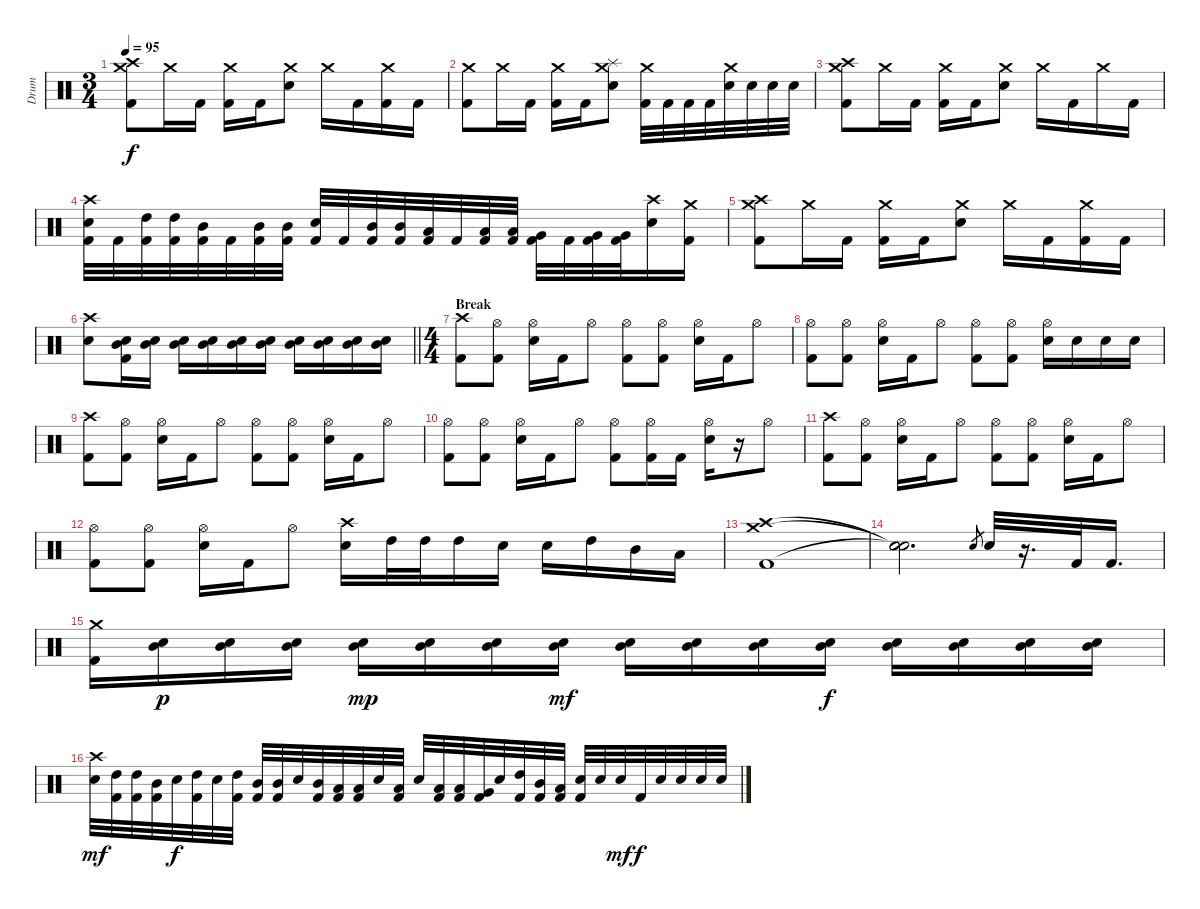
\track ("Drum" "Drum") {instrument percussion}
\staff {score}
\articulation defaults
\ts (3 4)
\tempo 95
\clef neutral
\ks c
("Crash medium (hit)" "Crash high (hit)" "Kick (hit) 2").8{dy f} "Crash medium (hit)".16 "Kick (hit) 2".16 ("Crash medium (hit)" "Kick (hit) 2").16 "Kick (hit) 2".16 ("Crash medium (hit)" "Electric Snare (hit)").8 "Crash medium (hit)".16 "Kick (hit) 2".16 ("Crash medium (hit)" "Kick (hit) 2").16 "Kick (hit) 2".16 |
("Crash medium (hit)" "Kick (hit) 2").8 "Crash medium (hit)".16 "Kick (hit) 2".16 ("Crash medium (hit)" "Kick (hit) 2").16 "Kick (hit) 2".16 ("Splash (hit)" "Crash medium (hit)" "Electric Snare (hit)").8 ("Crash medium (hit)" "Kick (hit) 2").32 "Kick (hit) 2".32 "Kick (hit) 2".32 "Kick (hit) 2".32 ("Crash medium (hit)" "Electric Snare (hit)").32 "Electric Snare (hit)".32 "Electric Snare (hit)".32 "Electric Snare (hit)".32 |
("Crash high (hit)" "Crash medium (hit)" "Kick (hit) 2").8 "Crash medium (hit)".16 "Kick (hit) 2".16 ("Crash medium (hit)" "Kick (hit) 2").16 "Kick (hit) 2".16 ("Crash medium (hit)" "Electric Snare (hit)").8 "Crash medium (hit)".16 "Kick (hit) 2".16 "Crash medium (hit)".16 "Kick (hit) 2".16 |
("Crash high (hit)" "Electric Snare (hit)" "Kick (hit) 2").32 "Kick (hit) 2".32 ("High Tom (hit)" "Kick (hit) 2").32 ("High Tom (hit)" "Kick (hit) 2").32 ("Mid Tom (hit)" "Kick (hit) 2").32 "Kick (hit) 2".32 ("Mid Tom (hit)" "Kick (hit) 2").32 ("Mid Tom (hit)" "Kick (hit) 2").32 ("Electric Snare (hit)" "Kick (hit) 2").32 "Kick (hit) 2".32 ("Mid Tom (hit)" "Kick (hit) 2").32 ("Mid Tom (hit)" "Kick (hit) 2").32 ("Low Tom (hit)" "Kick (hit) 2").32 "Kick (hit) 2".32 ("Low Tom (hit)" "Kick (hit) 2").32 ("Low Tom (hit)" "Kick (hit) 2").32 ("Very Low Tom (hit)" "Kick (hit) 2").32 "Kick (hit) 2".32 ("Very Low Tom (hit)" "Kick (hit) 2").32 ("Very Low Tom (hit)" "Kick (hit) 2").32 ("Crash high (hit)" "Electric Snare (hit)").16 ("Crash medium (hit)" "Kick (hit) 2").16 |
("Crash medium (hit)" "Crash high (hit)" "Kick (hit) 2").8 "Crash medium (hit)".16 "Kick (hit) 2".16 ("Crash medium (hit)" "Kick (hit) 2").16 "Kick (hit) 2".16 ("Crash medium (hit)" "Electric Snare (hit)").8 "Crash medium (hit)".16 "Kick (hit) 2".16 ("Crash medium (hit)" "Kick (hit) 2").16 "Kick (hit) 2".16 |
\barLineRight lightlight
("Crash high (hit)" "Electric Snare (hit)").8 ("Electric Snare (hit)" "Mid Tom (hit)" "Kick (hit) 2").16 ("Electric Snare (hit)" "Mid Tom (hit)").16 ("Electric Snare (hit)" "Mid Tom (hit)").16 ("Electric Snare (hit)" "Mid Tom (hit)").16 ("Electric Snare (hit)" "Mid Tom (hit)").16 ("Electric Snare (hit)" "Mid Tom (hit)").16 ("Electric Snare (hit)" "Mid Tom (hit)").16 ("Electric Snare (hit)" "Mid Tom (hit)").16 ("Electric Snare (hit)" "Mid Tom (hit)").16 ("Electric Snare (hit)" "Mid Tom (hit)").16 |
\ts (4 4)
\section ("" "Break")
("Crash high (hit)" "Kick (hit) 2").8 ("Hi-Hat (open)" "Kick (hit) 2").8 ("Hi-Hat (open)" "Electric Snare (hit)").16 "Kick (hit) 2".16 "Hi-Hat (open)".8 ("Hi-Hat (open)" "Kick (hit) 2").8 ("Hi-Hat (open)" "Kick (hit) 2").8 ("Hi-Hat (open)" "Electric Snare (hit)").16 "Kick (hit) 2".16 "Hi-Hat (open)".8 |
("Hi-Hat (open)" "Kick (hit) 2").8 ("Hi-Hat (open)" "Kick (hit) 2").8 ("Hi-Hat (open)" "Electric Snare (hit)").16 "Kick (hit) 2".16 "Hi-Hat (open)".8 ("Hi-Hat (open)" "Kick (hit) 2").8 ("Hi-Hat (open)" "Kick (hit) 2").8 ("Hi-Hat (open)" "Electric Snare (hit)").16 "Electric Snare (hit)".16 "Electric Snare (hit)".16 "Electric Snare (hit)".16 |
("Crash high (hit)" "Kick (hit) 2").8 ("Hi-Hat (open)" "Kick (hit) 2").8 ("Hi-Hat (open)" "Electric Snare (hit)").16 "Kick (hit) 2".16 "Hi-Hat (open)".8 ("Hi-Hat (open)" "Kick (hit) 2").8 ("Hi-Hat (open)" "Kick (hit) 2").8 ("Hi-Hat (open)" "Electric Snare (hit)").16 "Kick (hit) 2".16 "Hi-Hat (open)".8 |
("Hi-Hat (open)" "Kick (hit) 2").8 ("Hi-Hat (open)" "Kick (hit) 2").8 ("Hi-Hat (open)" "Electric Snare (hit)").16 "Kick (hit) 2".16 "Hi-Hat (open)".8 ("Hi-Hat (open)" "Kick (hit) 2").8 ("Hi-Hat (open)" "Kick (hit) 2").16 "Kick (hit) 2".16 ("Hi-Hat (open)" "Electric Snare (hit)").16 r.16 "Hi-Hat (open)".8 |
("Crash high (hit)" "Kick (hit) 2").8 ("Hi-Hat (open)" "Kick (hit) 2").8 ("Hi-Hat (open)" "Electric Snare (hit)").16 "Kick (hit) 2".16 "Hi-Hat (open)".8 ("Hi-Hat (open)" "Kick (hit) 2").8 ("Hi-Hat (open)" "Kick (hit) 2").8 ("Hi-Hat (open)" "Electric Snare (hit)").16 "Kick (hit) 2".16 "Hi-Hat (open)".8 |
("Hi-Hat (open)" "Kick (hit) 2").8 ("Hi-Hat (open)" "Kick (hit) 2").8 ("Hi-Hat (open)" "Electric Snare (hit)").16 "Kick (hit) 2".16 "Hi-Hat (open)".8 ("Crash high (hit)" "Electric Snare (hit)").16 "High Tom (hit)".32 "High Tom (hit)".32 "High Tom (hit)".16 "Electric Snare (hit)".16 "Electric Snare (hit)".16 "High Tom (hit)".16 "Mid Tom (hit)".16 "Low Tom (hit)".16 |
("Crash medium (hit)" "Crash high (hit)" "Kick (hit) 2").1 |
("Snare (hit)"{t} "Snare (hit)"{t} "Snare (hit)"{t}).2{d} "Electric Snare (hit)".8{gr} "Electric Snare (hit)".32 r.16{d} "Kick (hit) 2".32 "Kick (hit) 2".16{d} |
("Crash medium (hit)" "Kick (hit) 2").16 ("Electric Snare (hit)" "Mid Tom (hit)").16{dy p} ("Electric Snare (hit)" "Mid Tom (hit)").16 ("Electric Snare (hit)" "Mid Tom (hit)").16 ("Electric Snare (hit)" "Mid Tom (hit)").16{dy mp} ("Electric Snare (hit)" "Mid Tom (hit)").16 ("Electric Snare (hit)" "Mid Tom (hit)").16 ("Electric Snare (hit)" "Mid Tom (hit)").16{dy mf} ("Electric Snare (hit)" "Mid Tom (hit)").16 ("Electric Snare (hit)" "Mid Tom (hit)").16 ("Electric Snare (hit)" "Mid Tom (hit)").16 ("Electric Snare (hit)" "Mid Tom (hit)").16{dy f} ("Electric Snare (hit)" "Mid Tom (hit)").16 ("Electric Snare (hit)" "Mid Tom (hit)").16 ("Electric Snare (hit)" "Mid Tom (hit)").16 ("Electric Snare (hit)" "Mid Tom (hit)").16 |
("Crash high (hit)" "Electric Snare (hit)").32{dy mf} ("High Tom (hit)" "Kick (hit) 2").32 ("High Tom (hit)" "Kick (hit) 2").32 ("Mid Tom (hit)" "Kick (hit) 2").32 "Electric Snare (hit)".32{dy f} ("High Tom (hit)" "Kick (hit) 2").32 "Electric Snare (hit)".32 ("High Tom (hit)" "Kick (hit) 2").32 ("Mid Tom (hit)" "Kick (hit) 2").32 ("Mid Tom (hit)" "Kick (hit) 2").32 "Electric Snare (hit)".32 ("Mid Tom (hit)" "Kick (hit) 2").32 ("Low Tom (hit)" "Kick (hit) 2").32 ("Low Tom (hit)" "Kick (hit) 2").32 "Electric Snare (hit)".32 ("Low Tom (hit)" "Kick (hit) 2").32 "Electric Snare (hit)".32 ("Low Tom (hit)" "Kick (hit) 2").32 ("Low Tom (hit)" "Kick (hit) 2").32 ("Very Low Tom (hit)" "Kick (hit) 2").32 "Electric Snare (hit)".32 ("High Tom (hit)" "Kick (hit) 2").32 ("Mid Tom (hit)" "Kick (hit) 2").32 ("Low Tom (hit)" "Kick (hit) 2").32 ("Electric Snare (hit)" "Kick (hit) 2").32 "Electric Snare (hit)".32 "Electric Snare (hit)".32{dy mf} "Kick (hit) 2".32{dy f} "Electric Snare (hit)".32 "Electric Snare (hit)".32 "Electric Snare (hit)".32 "Electric Snare (hit)".32
